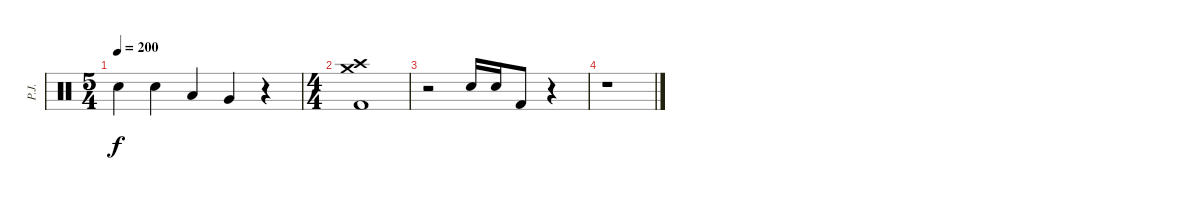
\track ("P.J." "P.J.") {instrument percussion}
\staff {score}
\articulation defaults
\ts (5 4)
\tempo 200
\clef neutral
\ks c "Electric Snare (hit)".4{dy f} "Electric Snare (hit)".4 "Low Tom (hit)".4 "Very Low Tom (hit)".4
r.4 |
\ts (4 4)
("Crash high (hit)" "Crash medium (hit)" "Kick (hit) 2").1 |
r.2 "Electric Snare (hit)".16 "Electric Snare (hit)".16 "Kick (hit) 2".8 r.4 |
r.1
